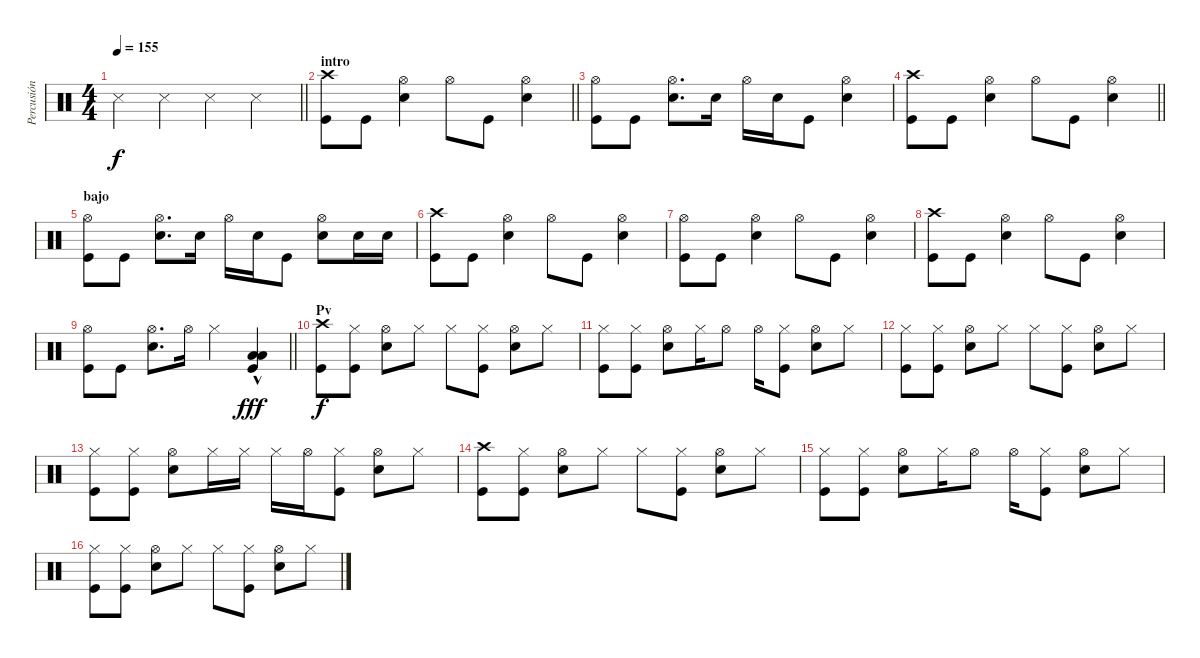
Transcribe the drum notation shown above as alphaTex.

\track ("Percusión" "Percusión") {instrument percussion}
\staff {score}
\articulation defaults
\ts (4 4)
\tempo 155
\clef neutral
\barLineRight lightlight
\ks c "Snare (side stick) 3".4{dy f} "Snare (side stick) 3".4 "Snare (side stick) 3".4 "Snare (side stick) 3".4
|
\section ("" "intro")
\barLineRight lightlight
("Crash high (hit)" "Kick (hit)").8 "Kick (hit)".8 ("Hi-Hat (open)" "Snare (hit) 2").4 "Hi-Hat (open)".8 "Kick (hit)".8 ("Hi-Hat (open)" "Snare (hit) 2").4 |
("Hi-Hat (open)" "Kick (hit)").8 "Kick (hit)".8 ("Hi-Hat (open)" "Snare (hit) 2").8{d} "Snare (hit) 2".16 "Hi-Hat (open)".16 "Snare (hit) 2".16 "Kick (hit)".8 ("Hi-Hat (open)" "Snare (hit) 2").4 |
\barLineRight lightlight
("Crash high (hit)" "Kick (hit)").8 "Kick (hit)".8 ("Hi-Hat (open)" "Snare (hit) 2").4 "Hi-Hat (open)".8 "Kick (hit)".8 ("Hi-Hat (open)" "Snare (hit) 2").4 |
\section ("" "bajo")
("Hi-Hat (open)" "Kick (hit)").8 "Kick (hit)".8 ("Hi-Hat (open)" "Snare (hit) 2").8{d} "Snare (hit) 2".16 "Hi-Hat (open)".16 "Snare (hit) 2".16 "Kick (hit)".8 ("Hi-Hat (open)" "Snare (hit) 2").8 "Snare (hit) 2".16 "Snare (hit) 2".16 |
("Crash high (hit)" "Kick (hit)").8 "Kick (hit)".8 ("Hi-Hat (open)" "Snare (hit) 2").4 "Hi-Hat (open)".8 "Kick (hit)".8 ("Hi-Hat (open)" "Snare (hit) 2").4 |
("Hi-Hat (open)" "Kick (hit)").8 "Kick (hit)".8 ("Hi-Hat (open)" "Snare (hit) 2").4 "Hi-Hat (open)".8 "Kick (hit)".8 ("Hi-Hat (open)" "Snare (hit) 2").4 |
("Crash high (hit)" "Kick (hit)").8 "Kick (hit)".8 ("Hi-Hat (open)" "Snare (hit) 2").4 "Hi-Hat (open)".8 "Kick (hit)".8 ("Hi-Hat (open)" "Snare (hit) 2").4 |
\barLineRight lightlight
("Hi-Hat (open)" "Kick (hit)").8 "Kick (hit)".8 ("Hi-Hat (open)" "Snare (hit) 2").8{d} "Hi-Hat (open)".16 "Hi-Hat (closed)".4 ("Low Tom (hit)"{hac} "Low Floor Tom (hit)"{hac} "Kick (hit)"{hac}).4{dy fff} |
\section ("" "Pv")
("Crash high (hit)" "Kick (hit)").8{dy f} ("Hi-Hat (closed)" "Kick (hit)").8 ("Hi-Hat (open)" "Snare (hit) 2").8 "Hi-Hat (closed)".8 "Hi-Hat (closed)".8 ("Hi-Hat (closed)" "Kick (hit)").8 ("Hi-Hat (open)" "Snare (hit) 2").8 "Hi-Hat (closed)".8 |
("Hi-Hat (closed)" "Kick (hit)").8 ("Hi-Hat (closed)" "Kick (hit)").8 ("Hi-Hat (open)" "Snare (hit) 2").8 "Hi-Hat (closed)".16 "Hi-Hat (open)".8 "Hi-Hat (open)".16 ("Hi-Hat (closed)" "Kick (hit)").8 ("Hi-Hat (open)" "Snare (hit) 2").8 "Hi-Hat (closed)".8 |
("Hi-Hat (closed)" "Kick (hit)").8 ("Hi-Hat (closed)" "Kick (hit)").8 ("Hi-Hat (open)" "Snare (hit) 2").8 "Hi-Hat (closed)".8 "Hi-Hat (closed)".8 ("Hi-Hat (closed)" "Kick (hit)").8 ("Hi-Hat (open)" "Snare (hit) 2").8 "Hi-Hat (closed)".8 |
("Hi-Hat (closed)" "Kick (hit)").8 ("Hi-Hat (closed)" "Kick (hit)").8 ("Hi-Hat (open)" "Snare (hit) 2").8 "Hi-Hat (closed)".16 "Hi-Hat (closed)".16 "Hi-Hat (closed)".16 "Hi-Hat (open)".16 ("Hi-Hat (closed)" "Kick (hit)").8 ("Hi-Hat (open)" "Snare (hit) 2").8 "Hi-Hat (closed)".8 |
("Crash high (hit)" "Kick (hit)").8 ("Hi-Hat (closed)" "Kick (hit)").8 ("Hi-Hat (open)" "Snare (hit) 2").8 "Hi-Hat (closed)".8 "Hi-Hat (closed)".8 ("Hi-Hat (closed)" "Kick (hit)").8 ("Hi-Hat (open)" "Snare (hit) 2").8 "Hi-Hat (closed)".8 |
("Hi-Hat (closed)" "Kick (hit)").8 ("Hi-Hat (closed)" "Kick (hit)").8 ("Hi-Hat (open)" "Snare (hit) 2").8 "Hi-Hat (closed)".16 "Hi-Hat (open)".8 "Hi-Hat (open)".16 ("Hi-Hat (closed)" "Kick (hit)").8 ("Hi-Hat (open)" "Snare (hit) 2").8 "Hi-Hat (closed)".8 |
("Hi-Hat (closed)" "Kick (hit)").8 ("Hi-Hat (closed)" "Kick (hit)").8 ("Hi-Hat (open)" "Snare (hit) 2").8 "Hi-Hat (closed)".8 "Hi-Hat (closed)".8 ("Hi-Hat (closed)" "Kick (hit)").8 ("Hi-Hat (open)" "Snare (hit) 2").8 "Hi-Hat (closed)".8
